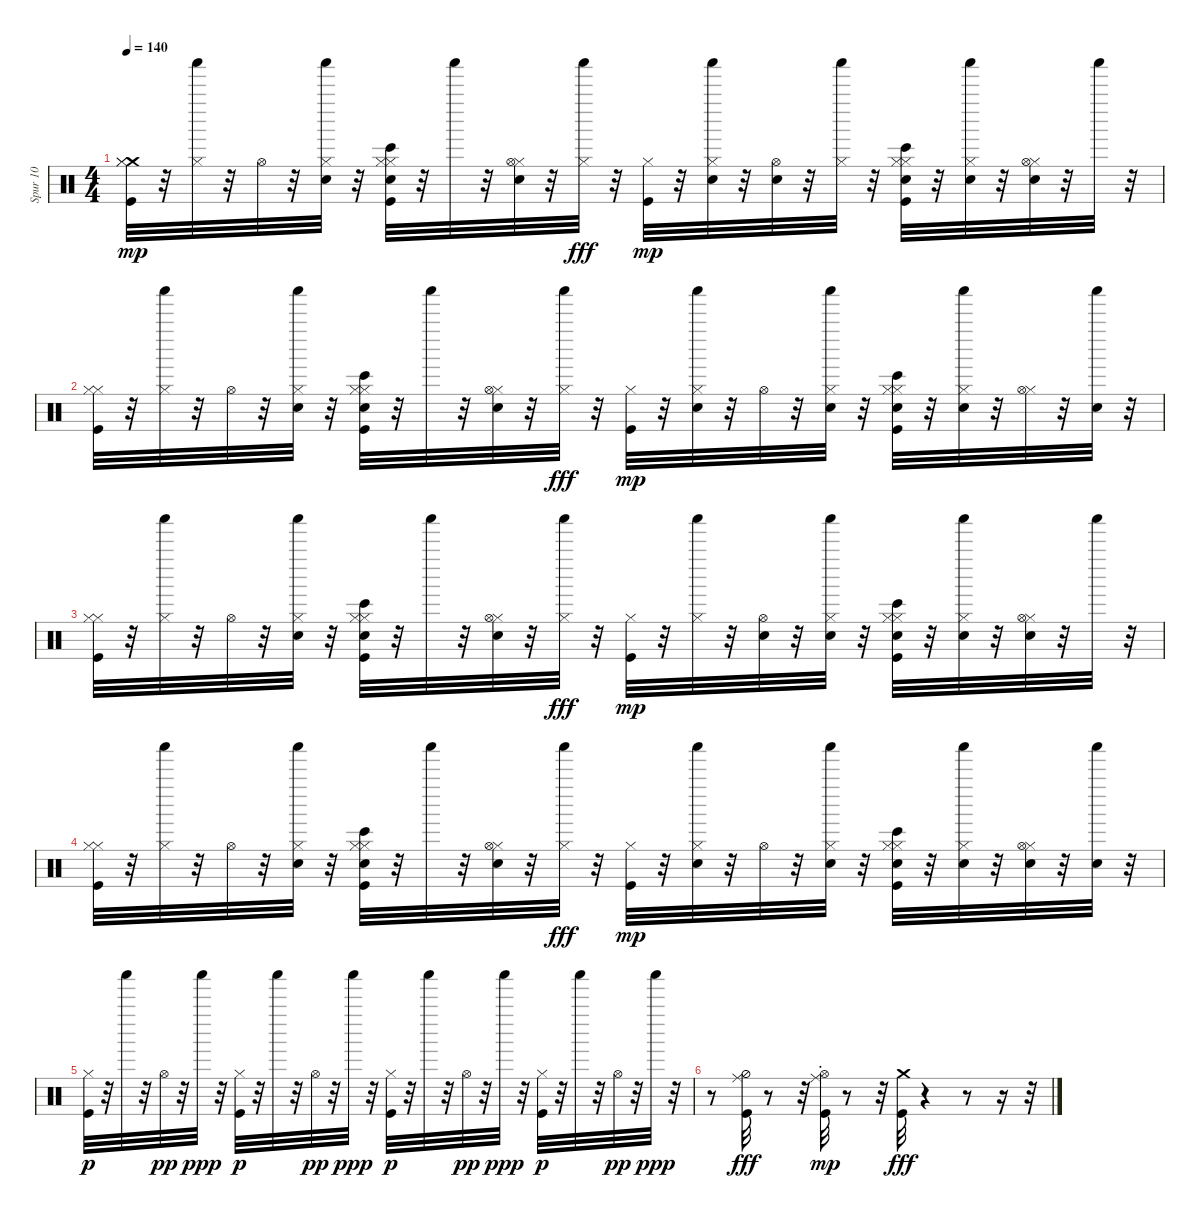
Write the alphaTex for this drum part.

\track ("Spur 10" "Spur 10") {instrument percussion}
\staff {score}
\articulation defaults
\ts (4 4)
\tempo 140
\clef neutral
\ks c
("Crash medium (hit)" "Hi-Hat (closed)" "Kick (hit)" "Hi-Hat (closed)").32{dy mp} r.32 ("Hi-Hat (closed)" "Shaker (hit)").32 r.32 "Hi-Hat (open)".32 r.32 ("Shaker (hit)" "Snare (hit) 2" "Hi-Hat (closed)").32 r.32 ("Electric Snare (hit)" "Hi-Hat (closed)" "Kick (hit)" "Bongo High (hit)" "Hi-Hat (closed)").32 r.32 "Shaker (hit)".32 r.32 ("Snare (hit) 2" "Hi-Hat (closed)" "Hi-Hat (open)").32 r.32 ("Shaker (hit)" "Hi-Hat (closed)").32{dy fff} r.32 ("Kick (hit)" "Hi-Hat (closed)").32{dy mp} r.32 ("Snare (hit) 2" "Hi-Hat (closed)" "Shaker (hit)").32 r.32 ("Snare (hit) 2" "Hi-Hat (open)").32 r.32 ("Shaker (hit)" "Hi-Hat (closed)").32 r.32 ("Hi-Hat (closed)" "Kick (hit)" "Bongo High (hit)" "Electric Snare (hit)" "Hi-Hat (closed)").32 r.32 ("Snare (hit) 2" "Hi-Hat (closed)" "Shaker (hit)").32 r.32 ("Snare (hit) 2" "Hi-Hat (closed)" "Hi-Hat (open)").32 r.32 "Shaker (hit)".32 r.32 |
("Hi-Hat (closed)" "Kick (hit)" "Hi-Hat (closed)").32 r.32 ("Hi-Hat (closed)" "Shaker (hit)").32 r.32 "Hi-Hat (open)".32 r.32 ("Shaker (hit)" "Snare (hit) 2" "Hi-Hat (closed)").32 r.32 ("Electric Snare (hit)" "Hi-Hat (closed)" "Kick (hit)" "Bongo High (hit)" "Hi-Hat (closed)").32 r.32 "Shaker (hit)".32 r.32 ("Snare (hit) 2" "Hi-Hat (closed)" "Hi-Hat (open)").32 r.32 ("Shaker (hit)" "Hi-Hat (closed)").32{dy fff} r.32 ("Kick (hit)" "Hi-Hat (closed)").32{dy mp} r.32 ("Snare (hit) 2" "Hi-Hat (closed)" "Shaker (hit)").32 r.32 "Hi-Hat (open)".32 r.32 ("Snare (hit) 2" "Shaker (hit)" "Hi-Hat (closed)").32 r.32 ("Hi-Hat (closed)" "Kick (hit)" "Bongo High (hit)" "Electric Snare (hit)" "Hi-Hat (closed)").32 r.32 ("Snare (hit) 2" "Hi-Hat (closed)" "Shaker (hit)").32 r.32 ("Hi-Hat (closed)" "Hi-Hat (open)").32 r.32 ("Snare (hit) 2" "Shaker (hit)").32 r.32 |
("Hi-Hat (closed)" "Kick (hit)" "Hi-Hat (closed)").32 r.32 ("Hi-Hat (closed)" "Shaker (hit)").32 r.32 "Hi-Hat (open)".32 r.32 ("Shaker (hit)" "Snare (hit) 2" "Hi-Hat (closed)").32 r.32 ("Hi-Hat (closed)" "Kick (hit)" "Bongo High (hit)" "Electric Snare (hit)" "Hi-Hat (closed)").32 r.32 "Shaker (hit)".32 r.32 ("Snare (hit) 2" "Hi-Hat (closed)" "Hi-Hat (open)").32 r.32 ("Shaker (hit)" "Hi-Hat (closed)").32{dy fff} r.32 ("Kick (hit)" "Hi-Hat (closed)").32{dy mp} r.32 ("Hi-Hat (closed)" "Shaker (hit)").32 r.32 ("Snare (hit) 2" "Hi-Hat (open)").32 r.32 ("Snare (hit) 2" "Shaker (hit)" "Hi-Hat (closed)").32 r.32 ("Hi-Hat (closed)" "Kick (hit)" "Bongo High (hit)" "Electric Snare (hit)" "Hi-Hat (closed)").32 r.32 ("Snare (hit) 2" "Hi-Hat (closed)" "Shaker (hit)").32 r.32 ("Snare (hit) 2" "Hi-Hat (closed)" "Hi-Hat (open)").32 r.32 "Shaker (hit)".32 r.32 |
("Hi-Hat (closed)" "Kick (hit)" "Hi-Hat (closed)").32 r.32 ("Hi-Hat (closed)" "Shaker (hit)").32 r.32 "Hi-Hat (open)".32 r.32 ("Shaker (hit)" "Snare (hit) 2" "Hi-Hat (closed)").32 r.32 ("Hi-Hat (closed)" "Kick (hit)" "Bongo High (hit)" "Electric Snare (hit)" "Hi-Hat (closed)").32 r.32 "Shaker (hit)".32 r.32 ("Snare (hit) 2" "Hi-Hat (closed)" "Hi-Hat (open)").32 r.32 ("Shaker (hit)" "Hi-Hat (closed)").32{dy fff} r.32 ("Kick (hit)" "Hi-Hat (closed)").32{dy mp} r.32 ("Snare (hit) 2" "Hi-Hat (closed)" "Shaker (hit)").32 r.32 "Hi-Hat (open)".32 r.32 ("Snare (hit) 2" "Shaker (hit)" "Hi-Hat (closed)").32 r.32 ("Hi-Hat (closed)" "Kick (hit)" "Bongo High (hit)" "Electric Snare (hit)" "Hi-Hat (closed)").32 r.32 ("Snare (hit) 2" "Hi-Hat (closed)" "Shaker (hit)").32 r.32 ("Snare (hit) 2" "Hi-Hat (closed)" "Hi-Hat (open)").32 r.32 ("Snare (hit) 2" "Shaker (hit)").32 r.32 |
("Kick (hit)" "Hi-Hat (closed)").32{dy p} r.32 "Shaker (hit)".32 r.32 "Hi-Hat (open)".32{dy pp} r.32 "Shaker (hit)".32{dy ppp} r.32 ("Kick (hit)" "Hi-Hat (closed)").32{dy p} r.32 "Shaker (hit)".32 r.32 "Hi-Hat (open)".32{dy pp} r.32 "Shaker (hit)".32{dy ppp} r.32 ("Kick (hit)" "Hi-Hat (closed)").32{dy p} r.32 "Shaker (hit)".32 r.32 "Hi-Hat (open)".32{dy pp} r.32 "Shaker (hit)".32{dy ppp} r.32 ("Kick (hit)" "Hi-Hat (closed)").32{dy p} r.32 "Shaker (hit)".32 r.32 "Hi-Hat (open)".32{dy pp} r.32 "Shaker (hit)".32{dy ppp} r.32 |
r.8 ("Hi-Hat (half)" "Kick (hit)" "Ride (middle)").32{dy fff} r.8 r.32 ("Ride (choke)" "Kick (hit)" "Hi-Hat (open)").32{dy mp} r.8 r.32 ("Crash medium (hit)" "Kick (hit)").32{dy fff} r.4 r.8 r.16 r.32
